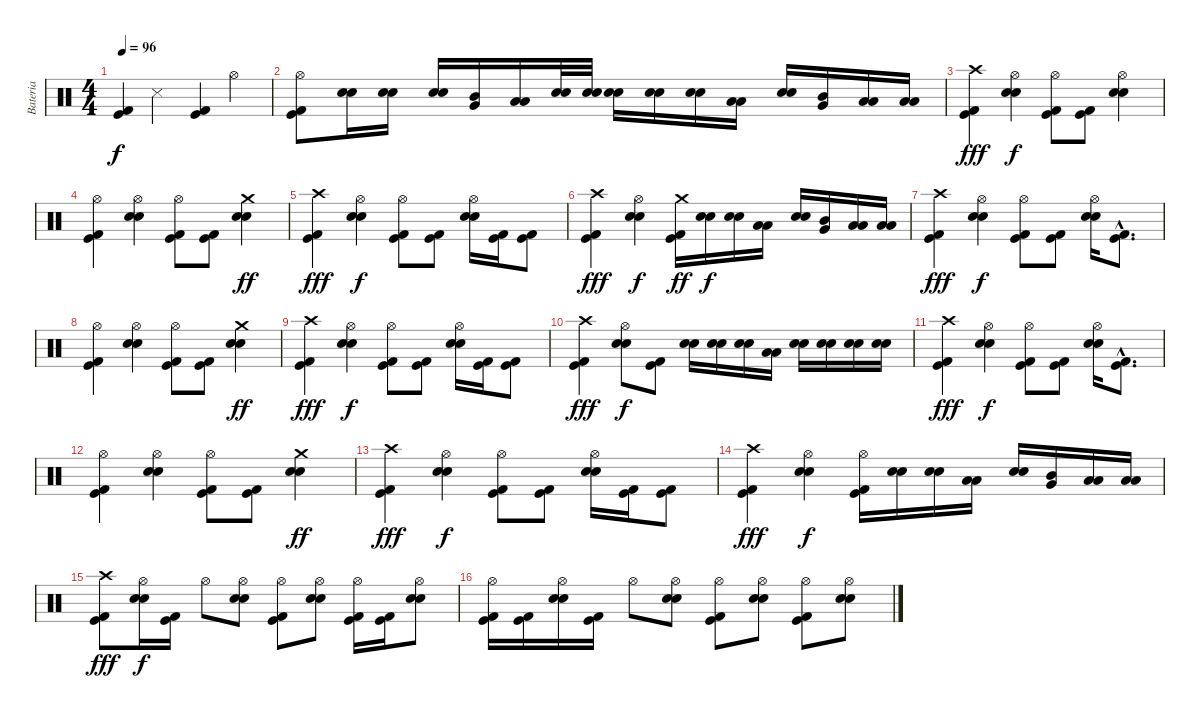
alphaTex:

\track ("Bateria" "Bateria") {instrument percussion}
\staff {score}
\articulation defaults
\ts (4 4)
\tempo 96
\clef neutral
\ks c
("Kick (hit) 2" "Kick (hit)").4{dy f} "Snare (side stick) 3".4 ("Kick (hit) 2" "Kick (hit)").4 "Hi-Hat (open)".4 |
("Hi-Hat (open)" "Kick (hit) 2" "Kick (hit)").8 ("Electric Snare (hit)" "Snare (hit) 2").16 ("Electric Snare (hit)" "Snare (hit) 2").16 ("Electric Snare (hit)" "Snare (hit) 2").16 ("Mid Tom (hit)" "Very Low Tom (hit)").16 ("Low Tom (hit)" "Low Floor Tom (hit)").16 ("Electric Snare (hit)" "Snare (hit) 2").32 ("Electric Snare (hit)" "Snare (hit) 2").32 ("Electric Snare (hit)" "Snare (hit) 2").16 ("Electric Snare (hit)" "Snare (hit) 2").16 ("Electric Snare (hit)" "Snare (hit) 2").16 ("Low Tom (hit)" "Low Floor Tom (hit)").16 ("Electric Snare (hit)" "Snare (hit) 2").16 ("Mid Tom (hit)" "Very Low Tom (hit)").16 ("Low Tom (hit)" "Low Floor Tom (hit)").16 ("Low Tom (hit)" "Low Floor Tom (hit)").16 |
("Crash high (hit)" "Kick (hit) 2" "Kick (hit)").4{dy fff} ("Hi-Hat (open)" "Electric Snare (hit)" "Snare (hit) 2").4{dy f} ("Hi-Hat (open)" "Kick (hit) 2" "Kick (hit)").8 ("Kick (hit) 2" "Kick (hit)").8 ("Hi-Hat (open)" "Electric Snare (hit)" "Snare (hit) 2").4 |
("Hi-Hat (open)" "Kick (hit) 2" "Kick (hit)").4 ("Hi-Hat (open)" "Electric Snare (hit)" "Snare (hit) 2").4 ("Hi-Hat (open)" "Kick (hit) 2" "Kick (hit)").8 ("Kick (hit) 2" "Kick (hit)").8 ("Crash medium (hit)" "Electric Snare (hit)" "Snare (hit) 2").4{dy ff} |
("Crash high (hit)" "Kick (hit) 2" "Kick (hit)").4{dy fff} ("Hi-Hat (open)" "Electric Snare (hit)" "Snare (hit) 2").4{dy f} ("Hi-Hat (open)" "Kick (hit) 2" "Kick (hit)").8 ("Kick (hit) 2" "Kick (hit)").8 ("Hi-Hat (open)" "Electric Snare (hit)" "Snare (hit) 2").16 ("Kick (hit) 2" "Kick (hit)").16 ("Kick (hit) 2" "Kick (hit)").8 |
("Crash high (hit)" "Kick (hit) 2" "Kick (hit)").4{dy fff} ("Hi-Hat (open)" "Electric Snare (hit)" "Snare (hit) 2").4{dy f} ("Crash medium (hit)" "Kick (hit) 2" "Kick (hit)").16{dy ff} ("Electric Snare (hit)" "Snare (hit) 2").16{dy f} ("Electric Snare (hit)" "Snare (hit) 2").16 ("Low Tom (hit)" "Low Floor Tom (hit)").16 ("Electric Snare (hit)" "Snare (hit) 2").16 ("Mid Tom (hit)" "Very Low Tom (hit)").16 ("Low Tom (hit)" "Low Floor Tom (hit)").16 ("Low Tom (hit)" "Low Floor Tom (hit)").16 |
("Crash high (hit)" "Kick (hit) 2" "Kick (hit)").4{dy fff} ("Hi-Hat (open)" "Electric Snare (hit)" "Snare (hit) 2").4{dy f} ("Hi-Hat (open)" "Kick (hit) 2" "Kick (hit)").8 ("Kick (hit) 2" "Kick (hit)").8 ("Hi-Hat (open)" "Electric Snare (hit)" "Snare (hit) 2").16 ("Kick (hit) 2"{hac} "Kick (hit)"{hac}).8{d} |
("Hi-Hat (open)" "Kick (hit) 2" "Kick (hit)").4 ("Hi-Hat (open)" "Electric Snare (hit)" "Snare (hit) 2").4 ("Hi-Hat (open)" "Kick (hit) 2" "Kick (hit)").8 ("Kick (hit) 2" "Kick (hit)").8 ("Crash medium (hit)" "Electric Snare (hit)" "Snare (hit) 2").4{dy ff} |
("Crash high (hit)" "Kick (hit) 2" "Kick (hit)").4{dy fff} ("Hi-Hat (open)" "Electric Snare (hit)" "Snare (hit) 2").4{dy f} ("Hi-Hat (open)" "Kick (hit) 2" "Kick (hit)").8 ("Kick (hit) 2" "Kick (hit)").8 ("Hi-Hat (open)" "Electric Snare (hit)" "Snare (hit) 2").16 ("Kick (hit) 2" "Kick (hit)").16 ("Kick (hit) 2" "Kick (hit)").8 |
("Crash high (hit)" "Kick (hit) 2" "Kick (hit)").4{dy fff} ("Hi-Hat (open)" "Electric Snare (hit)" "Snare (hit) 2").8{dy f} ("Kick (hit) 2" "Kick (hit)").8 ("Electric Snare (hit)" "Snare (hit) 2").16 ("Electric Snare (hit)" "Snare (hit) 2").16 ("Electric Snare (hit)" "Snare (hit) 2").16 ("Low Tom (hit)" "Low Floor Tom (hit)").16 ("Electric Snare (hit)" "Snare (hit) 2").16 ("Electric Snare (hit)" "Snare (hit) 2").16 ("Electric Snare (hit)" "Snare (hit) 2").16 ("Electric Snare (hit)" "Snare (hit) 2").16 |
("Crash high (hit)" "Kick (hit) 2" "Kick (hit)").4{dy fff} ("Hi-Hat (open)" "Electric Snare (hit)" "Snare (hit) 2").4{dy f} ("Hi-Hat (open)" "Kick (hit) 2" "Kick (hit)").8 ("Kick (hit) 2" "Kick (hit)").8 ("Hi-Hat (open)" "Electric Snare (hit)" "Snare (hit) 2").16 ("Kick (hit) 2"{hac} "Kick (hit)"{hac}).8{d} |
("Hi-Hat (open)" "Kick (hit) 2" "Kick (hit)").4 ("Hi-Hat (open)" "Electric Snare (hit)" "Snare (hit) 2").4 ("Hi-Hat (open)" "Kick (hit) 2" "Kick (hit)").8 ("Kick (hit) 2" "Kick (hit)").8 ("Crash medium (hit)" "Electric Snare (hit)" "Snare (hit) 2").4{dy ff} |
("Crash high (hit)" "Kick (hit) 2" "Kick (hit)").4{dy fff} ("Hi-Hat (open)" "Electric Snare (hit)" "Snare (hit) 2").4{dy f} ("Hi-Hat (open)" "Kick (hit) 2" "Kick (hit)").8 ("Kick (hit) 2" "Kick (hit)").8 ("Hi-Hat (open)" "Electric Snare (hit)" "Snare (hit) 2").16 ("Kick (hit) 2" "Kick (hit)").16 ("Kick (hit) 2" "Kick (hit)").8 |
("Crash high (hit)" "Kick (hit) 2" "Kick (hit)").4{dy fff} ("Hi-Hat (open)" "Electric Snare (hit)" "Snare (hit) 2").4{dy f} ("Hi-Hat (open)" "Kick (hit) 2" "Kick (hit)").16 ("Electric Snare (hit)" "Snare (hit) 2").16 ("Electric Snare (hit)" "Snare (hit) 2").16 ("Low Tom (hit)" "Low Floor Tom (hit)").16 ("Electric Snare (hit)" "Snare (hit) 2").16 ("Mid Tom (hit)" "Very Low Tom (hit)").16 ("Low Tom (hit)" "Low Floor Tom (hit)").16 ("Low Tom (hit)" "Low Floor Tom (hit)").16 |
("Crash high (hit)" "Kick (hit) 2" "Kick (hit)").8{dy fff} ("Hi-Hat (open)" "Electric Snare (hit)" "Snare (hit) 2").16{dy f} ("Kick (hit) 2" "Kick (hit)").16 "Hi-Hat (open)".8 ("Hi-Hat (open)" "Electric Snare (hit)" "Snare (hit) 2").8 ("Hi-Hat (open)" "Kick (hit) 2" "Kick (hit)").8 ("Hi-Hat (open)" "Electric Snare (hit)" "Snare (hit) 2").8 ("Hi-Hat (open)" "Kick (hit) 2" "Kick (hit)").16 ("Kick (hit) 2" "Kick (hit)").16 ("Hi-Hat (open)" "Electric Snare (hit)" "Snare (hit) 2").8 |
("Hi-Hat (open)" "Kick (hit) 2" "Kick (hit)").16 ("Kick (hit) 2" "Kick (hit)").16 ("Hi-Hat (open)" "Electric Snare (hit)" "Snare (hit) 2").16 ("Kick (hit) 2" "Kick (hit)").16 "Hi-Hat (open)".8 ("Hi-Hat (open)" "Electric Snare (hit)" "Snare (hit) 2").8 ("Hi-Hat (open)" "Kick (hit) 2" "Kick (hit)").8 ("Hi-Hat (open)" "Electric Snare (hit)" "Snare (hit) 2").8 ("Hi-Hat (open)" "Kick (hit) 2" "Kick (hit)").8 ("Hi-Hat (open)" "Electric Snare (hit)" "Snare (hit) 2").8
